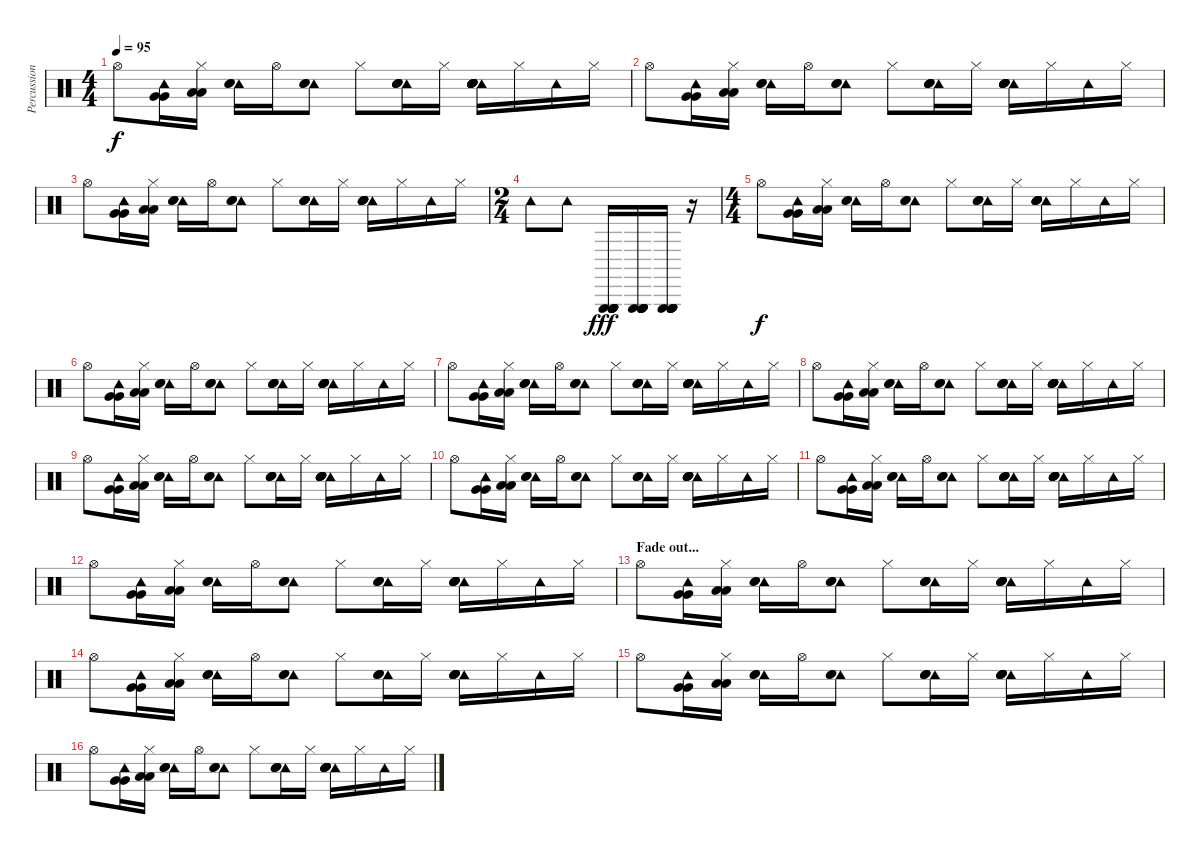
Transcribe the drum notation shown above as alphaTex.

\track ("Percussion" "Percussion") {instrument percussion}
\staff {score}
\articulation defaults
\ts (4 4)
\tempo 95
\clef neutral
\ks c "Hi-Hat (open)".8{dy f}
("Tambourine (hit)" "Very Low Tom (hit)" "Very Low Tom (hit)").16 ("Hi-Hat (closed)" "Low Floor Tom (hit)" "Low Floor Tom (hit)").16 ("Tambourine (hit)" "Electric Snare (hit)" "Electric Snare (hit)").16 "Hi-Hat (open)".16 ("Tambourine (hit)" "Snare (hit) 2" "Snare (hit) 2").8 "Hi-Hat (closed)".8 ("Tambourine (hit)" "Hand Clap (hit)" "Hand Clap (hit)" "Hand Clap (hit)").16 "Hi-Hat (closed)".16 ("Tambourine (hit)" "Snare (hit) 2" "Snare (hit) 2" "Hand Clap (hit)" "Hand Clap (hit)" "Hand Clap (hit)").16 "Hi-Hat (closed)".16 "Tambourine (hit)".16 "Hi-Hat (closed)".16 |
"Hi-Hat (open)".8 ("Tambourine (hit)" "Very Low Tom (hit)" "Very Low Tom (hit)").16 ("Hi-Hat (closed)" "Low Floor Tom (hit)" "Low Floor Tom (hit)").16 ("Tambourine (hit)" "Electric Snare (hit)" "Electric Snare (hit)").16 "Hi-Hat (open)".16 ("Tambourine (hit)" "Snare (hit) 2" "Snare (hit) 2").8 "Hi-Hat (closed)".8 ("Tambourine (hit)" "Hand Clap (hit)" "Hand Clap (hit)" "Hand Clap (hit)").16 "Hi-Hat (closed)".16 ("Tambourine (hit)" "Snare (hit) 2" "Snare (hit) 2" "Hand Clap (hit)" "Hand Clap (hit)" "Hand Clap (hit)").16 "Hi-Hat (closed)".16 "Tambourine (hit)".16 "Hi-Hat (closed)".16 |
"Hi-Hat (open)".8 ("Tambourine (hit)" "Very Low Tom (hit)" "Very Low Tom (hit)").16 ("Hi-Hat (closed)" "Low Floor Tom (hit)" "Low Floor Tom (hit)").16 ("Tambourine (hit)" "Electric Snare (hit)" "Electric Snare (hit)").16 "Hi-Hat (open)".16 ("Tambourine (hit)" "Snare (hit) 2" "Snare (hit) 2").8 "Hi-Hat (closed)".8 ("Tambourine (hit)" "Hand Clap (hit)" "Hand Clap (hit)" "Hand Clap (hit)").16 "Hi-Hat (closed)".16 ("Tambourine (hit)" "Snare (hit) 2" "Snare (hit) 2" "Hand Clap (hit)" "Hand Clap (hit)" "Hand Clap (hit)").16 "Hi-Hat (closed)".16 "Tambourine (hit)".16 "Hi-Hat (closed)".16 |
\ts (2 4)
"Tambourine (hit)".8 "Tambourine (hit)".8 ("Triangle (hit)" "Triangle (hit)" "Triangle (hit)" "Triangle (hit)" "Triangle (hit)" "Triangle (hit)").16{dy fff} ("Triangle (hit)" "Triangle (hit)" "Triangle (hit)" "Triangle (hit)" "Triangle (hit)" "Triangle (hit)").16 ("Triangle (hit)" "Triangle (hit)" "Triangle (hit)" "Triangle (hit)" "Triangle (hit)" "Triangle (hit)").16 r.16 |
\ts (4 4)
"Hi-Hat (open)".8{dy f} ("Tambourine (hit)" "Very Low Tom (hit)" "Very Low Tom (hit)").16 ("Hi-Hat (closed)" "Low Floor Tom (hit)" "Low Floor Tom (hit)").16 ("Tambourine (hit)" "Electric Snare (hit)" "Electric Snare (hit)").16 "Hi-Hat (open)".16 ("Tambourine (hit)" "Snare (hit) 2" "Snare (hit) 2").8 "Hi-Hat (closed)".8 ("Tambourine (hit)" "Hand Clap (hit)" "Hand Clap (hit)" "Hand Clap (hit)").16 "Hi-Hat (closed)".16 ("Tambourine (hit)" "Snare (hit) 2" "Snare (hit) 2" "Hand Clap (hit)" "Hand Clap (hit)" "Hand Clap (hit)").16 "Hi-Hat (closed)".16 "Tambourine (hit)".16 "Hi-Hat (closed)".16 |
"Hi-Hat (open)".8 ("Tambourine (hit)" "Very Low Tom (hit)" "Very Low Tom (hit)").16 ("Hi-Hat (closed)" "Low Floor Tom (hit)" "Low Floor Tom (hit)").16 ("Tambourine (hit)" "Electric Snare (hit)" "Electric Snare (hit)").16 "Hi-Hat (open)".16 ("Tambourine (hit)" "Snare (hit) 2" "Snare (hit) 2").8 "Hi-Hat (closed)".8 ("Tambourine (hit)" "Hand Clap (hit)" "Hand Clap (hit)" "Hand Clap (hit)").16 "Hi-Hat (closed)".16 ("Tambourine (hit)" "Snare (hit) 2" "Snare (hit) 2" "Hand Clap (hit)" "Hand Clap (hit)" "Hand Clap (hit)").16 "Hi-Hat (closed)".16 "Tambourine (hit)".16 "Hi-Hat (closed)".16 |
"Hi-Hat (open)".8 ("Tambourine (hit)" "Very Low Tom (hit)" "Very Low Tom (hit)").16 ("Hi-Hat (closed)" "Low Floor Tom (hit)" "Low Floor Tom (hit)").16 ("Tambourine (hit)" "Electric Snare (hit)" "Electric Snare (hit)").16 "Hi-Hat (open)".16 ("Tambourine (hit)" "Snare (hit) 2" "Snare (hit) 2").8 "Hi-Hat (closed)".8 ("Tambourine (hit)" "Hand Clap (hit)" "Hand Clap (hit)" "Hand Clap (hit)").16 "Hi-Hat (closed)".16 ("Tambourine (hit)" "Snare (hit) 2" "Snare (hit) 2" "Hand Clap (hit)" "Hand Clap (hit)" "Hand Clap (hit)").16 "Hi-Hat (closed)".16 "Tambourine (hit)".16 "Hi-Hat (closed)".16 |
"Hi-Hat (open)".8 ("Tambourine (hit)" "Very Low Tom (hit)" "Very Low Tom (hit)").16 ("Hi-Hat (closed)" "Low Floor Tom (hit)" "Low Floor Tom (hit)").16 ("Tambourine (hit)" "Electric Snare (hit)" "Electric Snare (hit)").16 "Hi-Hat (open)".16 ("Tambourine (hit)" "Snare (hit) 2" "Snare (hit) 2").8 "Hi-Hat (closed)".8 ("Tambourine (hit)" "Hand Clap (hit)" "Hand Clap (hit)" "Hand Clap (hit)").16 "Hi-Hat (closed)".16 ("Tambourine (hit)" "Snare (hit) 2" "Snare (hit) 2" "Hand Clap (hit)" "Hand Clap (hit)" "Hand Clap (hit)").16 "Hi-Hat (closed)".16 "Tambourine (hit)".16 "Hi-Hat (closed)".16 |
"Hi-Hat (open)".8 ("Tambourine (hit)" "Very Low Tom (hit)" "Very Low Tom (hit)").16 ("Hi-Hat (closed)" "Low Floor Tom (hit)" "Low Floor Tom (hit)").16 ("Tambourine (hit)" "Electric Snare (hit)" "Electric Snare (hit)").16 "Hi-Hat (open)".16 ("Tambourine (hit)" "Snare (hit) 2" "Snare (hit) 2").8 "Hi-Hat (closed)".8 ("Tambourine (hit)" "Hand Clap (hit)" "Hand Clap (hit)" "Hand Clap (hit)").16 "Hi-Hat (closed)".16 ("Tambourine (hit)" "Snare (hit) 2" "Snare (hit) 2" "Hand Clap (hit)" "Hand Clap (hit)" "Hand Clap (hit)").16 "Hi-Hat (closed)".16 "Tambourine (hit)".16 "Hi-Hat (closed)".16 |
"Hi-Hat (open)".8 ("Tambourine (hit)" "Very Low Tom (hit)" "Very Low Tom (hit)").16 ("Hi-Hat (closed)" "Low Floor Tom (hit)" "Low Floor Tom (hit)").16 ("Tambourine (hit)" "Electric Snare (hit)" "Electric Snare (hit)").16 "Hi-Hat (open)".16 ("Tambourine (hit)" "Snare (hit) 2" "Snare (hit) 2").8 "Hi-Hat (closed)".8 ("Tambourine (hit)" "Hand Clap (hit)" "Hand Clap (hit)" "Hand Clap (hit)").16 "Hi-Hat (closed)".16 ("Tambourine (hit)" "Snare (hit) 2" "Snare (hit) 2" "Hand Clap (hit)" "Hand Clap (hit)" "Hand Clap (hit)").16 "Hi-Hat (closed)".16 "Tambourine (hit)".16 "Hi-Hat (closed)".16 |
"Hi-Hat (open)".8 ("Tambourine (hit)" "Very Low Tom (hit)" "Very Low Tom (hit)").16 ("Hi-Hat (closed)" "Low Floor Tom (hit)" "Low Floor Tom (hit)").16 ("Tambourine (hit)" "Electric Snare (hit)" "Electric Snare (hit)").16 "Hi-Hat (open)".16 ("Tambourine (hit)" "Snare (hit) 2" "Snare (hit) 2").8 "Hi-Hat (closed)".8 ("Tambourine (hit)" "Hand Clap (hit)" "Hand Clap (hit)" "Hand Clap (hit)").16 "Hi-Hat (closed)".16 ("Tambourine (hit)" "Snare (hit) 2" "Snare (hit) 2" "Hand Clap (hit)" "Hand Clap (hit)" "Hand Clap (hit)").16 "Hi-Hat (closed)".16 "Tambourine (hit)".16 "Hi-Hat (closed)".16 |
"Hi-Hat (open)".8 ("Tambourine (hit)" "Very Low Tom (hit)" "Very Low Tom (hit)").16 ("Hi-Hat (closed)" "Low Floor Tom (hit)" "Low Floor Tom (hit)").16 ("Tambourine (hit)" "Electric Snare (hit)" "Electric Snare (hit)").16 "Hi-Hat (open)".16 ("Tambourine (hit)" "Snare (hit) 2" "Snare (hit) 2").8 "Hi-Hat (closed)".8 ("Tambourine (hit)" "Hand Clap (hit)" "Hand Clap (hit)" "Hand Clap (hit)").16 "Hi-Hat (closed)".16 ("Tambourine (hit)" "Snare (hit) 2" "Snare (hit) 2" "Hand Clap (hit)" "Hand Clap (hit)" "Hand Clap (hit)").16 "Hi-Hat (closed)".16 "Tambourine (hit)".16 "Hi-Hat (closed)".16 |
\section ("" "Fade out...")
"Hi-Hat (open)".8 ("Tambourine (hit)" "Very Low Tom (hit)" "Very Low Tom (hit)").16 ("Hi-Hat (closed)" "Low Floor Tom (hit)" "Low Floor Tom (hit)").16 ("Tambourine (hit)" "Electric Snare (hit)" "Electric Snare (hit)").16 "Hi-Hat (open)".16 ("Tambourine (hit)" "Snare (hit) 2" "Snare (hit) 2").8 "Hi-Hat (closed)".8 ("Tambourine (hit)" "Hand Clap (hit)" "Hand Clap (hit)" "Hand Clap (hit)").16 "Hi-Hat (closed)".16 ("Tambourine (hit)" "Snare (hit) 2" "Snare (hit) 2" "Hand Clap (hit)" "Hand Clap (hit)" "Hand Clap (hit)").16 "Hi-Hat (closed)".16 "Tambourine (hit)".16 "Hi-Hat (closed)".16 |
"Hi-Hat (open)".8{volume 1} ("Tambourine (hit)" "Very Low Tom (hit)" "Very Low Tom (hit)").16 ("Hi-Hat (closed)" "Low Floor Tom (hit)" "Low Floor Tom (hit)").16 ("Tambourine (hit)" "Electric Snare (hit)" "Electric Snare (hit)").16 "Hi-Hat (open)".16 ("Tambourine (hit)" "Snare (hit) 2" "Snare (hit) 2").8 "Hi-Hat (closed)".8 ("Tambourine (hit)" "Hand Clap (hit)" "Hand Clap (hit)" "Hand Clap (hit)").16 "Hi-Hat (closed)".16 ("Tambourine (hit)" "Snare (hit) 2" "Snare (hit) 2" "Hand Clap (hit)" "Hand Clap (hit)" "Hand Clap (hit)").16 "Hi-Hat (closed)".16 "Tambourine (hit)".16 "Hi-Hat (closed)".16 |
"Hi-Hat (open)".8 ("Tambourine (hit)" "Very Low Tom (hit)" "Very Low Tom (hit)").16 ("Hi-Hat (closed)" "Low Floor Tom (hit)" "Low Floor Tom (hit)").16 ("Tambourine (hit)" "Electric Snare (hit)" "Electric Snare (hit)").16 "Hi-Hat (open)".16 ("Tambourine (hit)" "Snare (hit) 2" "Snare (hit) 2").8 "Hi-Hat (closed)".8 ("Tambourine (hit)" "Hand Clap (hit)" "Hand Clap (hit)" "Hand Clap (hit)").16 "Hi-Hat (closed)".16 ("Tambourine (hit)" "Snare (hit) 2" "Snare (hit) 2" "Hand Clap (hit)" "Hand Clap (hit)" "Hand Clap (hit)").16 "Hi-Hat (closed)".16 "Tambourine (hit)".16 "Hi-Hat (closed)".16 |
"Hi-Hat (open)".8 ("Tambourine (hit)" "Very Low Tom (hit)" "Very Low Tom (hit)").16 ("Hi-Hat (closed)" "Low Floor Tom (hit)" "Low Floor Tom (hit)").16 ("Tambourine (hit)" "Electric Snare (hit)" "Electric Snare (hit)").16 "Hi-Hat (open)".16 ("Tambourine (hit)" "Snare (hit) 2" "Snare (hit) 2").8 "Hi-Hat (closed)".8 ("Tambourine (hit)" "Hand Clap (hit)" "Hand Clap (hit)" "Hand Clap (hit)").16 "Hi-Hat (closed)".16 ("Tambourine (hit)" "Snare (hit) 2" "Snare (hit) 2" "Hand Clap (hit)" "Hand Clap (hit)" "Hand Clap (hit)").16 "Hi-Hat (closed)".16 "Tambourine (hit)".16 "Hi-Hat (closed)".16
